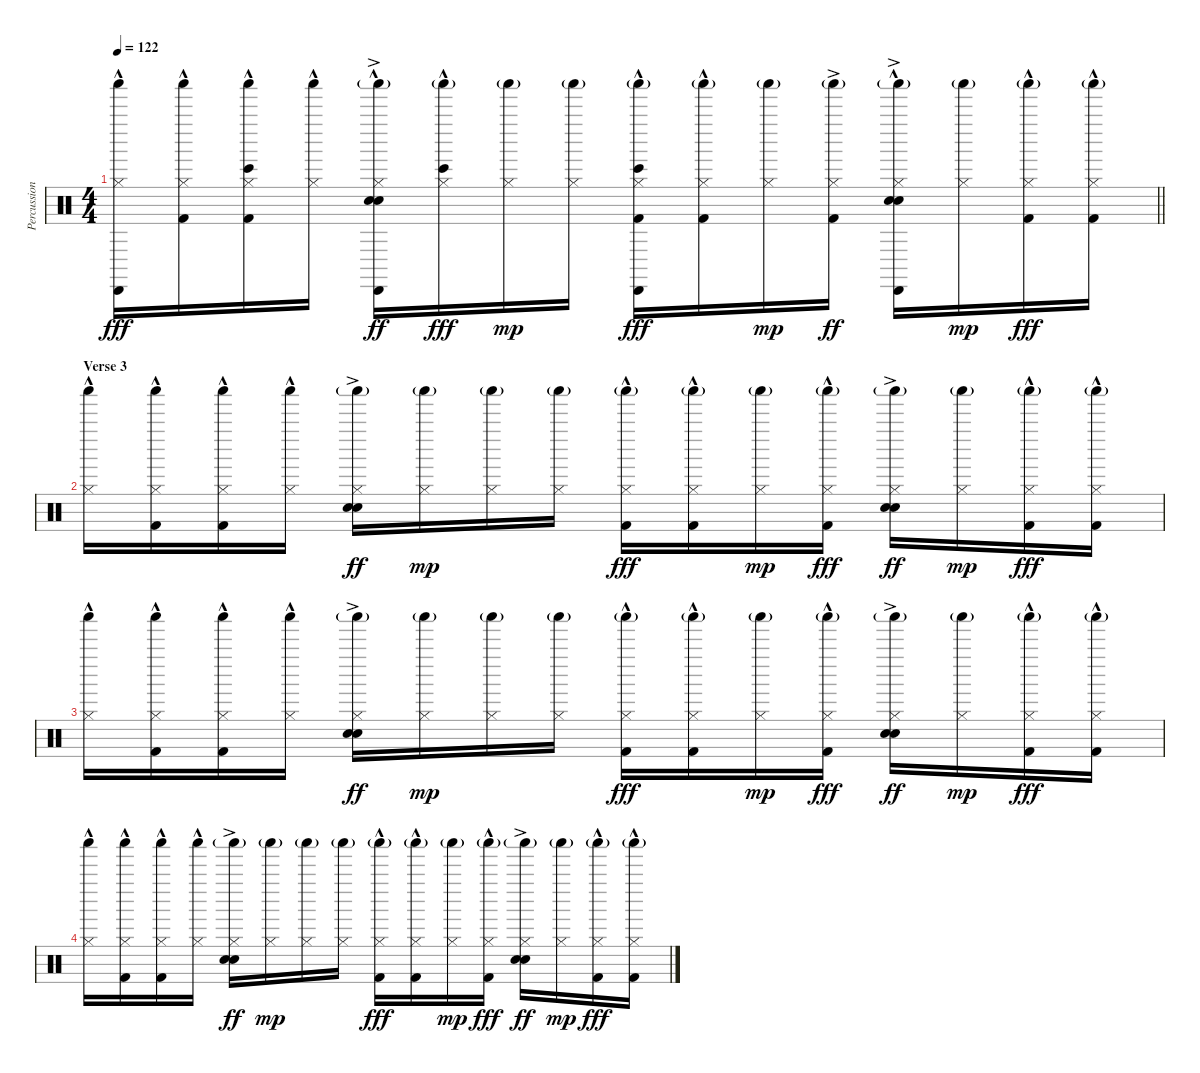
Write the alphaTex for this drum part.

\track ("Percussion" "Percussion") {instrument percussion}
\staff {score}
\articulation defaults
\ts (4 4)
\tempo 122
\clef neutral
\barLineRight lightlight
\ks c
("Cabasa (hit)"{hac} "Shaker (hit)" "Hi-Hat (closed)"{hac}).16{dy fff} ("Shaker (hit)" "Hi-Hat (closed)"{hac} "Kick (hit) 2"{hac}).16 ("Shaker (hit)" "Hi-Hat (closed)"{hac} "Bongo High (hit)"{hac} "Kick (hit) 2"{hac}).16 ("Shaker (hit)" "Hi-Hat (closed)"{hac}).16 ("Cabasa (hit)"{hac} "Shaker (hit)"{g} "Hi-Hat (closed)" "Hand Clap (hit)"{ac} "Snare (hit) 2"{ac}).16{dy ff} ("Shaker (hit)"{g} "Hi-Hat (closed)" "Bongo High (hit)"{hac}).16{dy fff} ("Shaker (hit)"{g} "Hi-Hat (closed)").16{dy mp} ("Shaker (hit)"{g} "Hi-Hat (closed)").16 ("Cabasa (hit)"{hac} "Shaker (hit)"{g} "Hi-Hat (closed)" "Bongo High (hit)"{hac} "Kick (hit) 2"{hac}).16{dy fff} ("Shaker (hit)"{g} "Hi-Hat (closed)" "Kick (hit) 2"{hac}).16 ("Shaker (hit)"{g} "Hi-Hat (closed)").16{dy mp} ("Shaker (hit)"{g} "Hi-Hat (closed)" "Kick (hit) 2"{ac}).16{dy ff} ("Cabasa (hit)"{hac} "Shaker (hit)"{g} "Hi-Hat (closed)" "Hand Clap (hit)"{ac} "Snare (hit) 2"{ac}).16 ("Shaker (hit)"{g} "Hi-Hat (closed)").16{dy mp} ("Shaker (hit)"{g} "Hi-Hat (closed)" "Kick (hit) 2"{hac}).16{dy fff} ("Shaker (hit)"{g} "Hi-Hat (closed)" "Kick (hit) 2"{hac}).16 |
\section ("" "Verse 3")
("Shaker (hit)" "Hi-Hat (closed)"{hac}).16 ("Shaker (hit)" "Hi-Hat (closed)"{hac} "Kick (hit) 2"{hac}).16 ("Shaker (hit)" "Hi-Hat (closed)"{hac} "Kick (hit) 2"{hac}).16 ("Shaker (hit)" "Hi-Hat (closed)"{hac}).16 ("Shaker (hit)"{g} "Hi-Hat (closed)" "Hand Clap (hit)" "Snare (hit) 2"{ac}).16{dy ff} ("Shaker (hit)"{g} "Hi-Hat (closed)").16{dy mp} ("Shaker (hit)"{g} "Hi-Hat (closed)").16 ("Shaker (hit)"{g} "Hi-Hat (closed)").16 ("Shaker (hit)"{g} "Hi-Hat (closed)" "Kick (hit) 2"{hac}).16{dy fff} ("Shaker (hit)"{g} "Hi-Hat (closed)" "Kick (hit) 2"{hac}).16 ("Shaker (hit)"{g} "Hi-Hat (closed)").16{dy mp} ("Shaker (hit)"{g} "Hi-Hat (closed)" "Kick (hit) 2"{hac}).16{dy fff} ("Shaker (hit)"{g} "Hi-Hat (closed)" "Hand Clap (hit)"{ac} "Snare (hit) 2"{ac}).16{dy ff} ("Shaker (hit)"{g} "Hi-Hat (closed)").16{dy mp} ("Shaker (hit)"{g} "Hi-Hat (closed)" "Kick (hit) 2"{hac}).16{dy fff} ("Shaker (hit)"{g} "Hi-Hat (closed)" "Kick (hit) 2"{hac}).16 |
("Shaker (hit)" "Hi-Hat (closed)"{hac}).16 ("Shaker (hit)" "Hi-Hat (closed)"{hac} "Kick (hit) 2"{hac}).16 ("Shaker (hit)" "Hi-Hat (closed)"{hac} "Kick (hit) 2"{hac}).16 ("Shaker (hit)" "Hi-Hat (closed)"{hac}).16 ("Shaker (hit)"{g} "Hi-Hat (closed)" "Hand Clap (hit)" "Snare (hit) 2"{ac}).16{dy ff} ("Shaker (hit)"{g} "Hi-Hat (closed)").16{dy mp} ("Shaker (hit)"{g} "Hi-Hat (closed)").16 ("Shaker (hit)"{g} "Hi-Hat (closed)").16 ("Shaker (hit)"{g} "Hi-Hat (closed)" "Kick (hit) 2"{hac}).16{dy fff} ("Shaker (hit)"{g} "Hi-Hat (closed)" "Kick (hit) 2"{hac}).16 ("Shaker (hit)"{g} "Hi-Hat (closed)").16{dy mp} ("Shaker (hit)"{g} "Hi-Hat (closed)" "Kick (hit) 2"{hac}).16{dy fff} ("Shaker (hit)"{g} "Hi-Hat (closed)" "Hand Clap (hit)"{ac} "Snare (hit) 2"{ac}).16{dy ff} ("Shaker (hit)"{g} "Hi-Hat (closed)").16{dy mp} ("Shaker (hit)"{g} "Hi-Hat (closed)" "Kick (hit) 2"{hac}).16{dy fff} ("Shaker (hit)"{g} "Hi-Hat (closed)" "Kick (hit) 2"{hac}).16 |
("Shaker (hit)" "Hi-Hat (closed)"{hac}).16 ("Shaker (hit)" "Hi-Hat (closed)"{hac} "Kick (hit) 2"{hac}).16 ("Shaker (hit)" "Hi-Hat (closed)"{hac} "Kick (hit) 2"{hac}).16 ("Shaker (hit)" "Hi-Hat (closed)"{hac}).16 ("Shaker (hit)"{g} "Hi-Hat (closed)" "Hand Clap (hit)" "Snare (hit) 2"{ac}).16{dy ff} ("Shaker (hit)"{g} "Hi-Hat (closed)").16{dy mp} ("Shaker (hit)"{g} "Hi-Hat (closed)").16 ("Shaker (hit)"{g} "Hi-Hat (closed)").16 ("Shaker (hit)"{g} "Hi-Hat (closed)" "Kick (hit) 2"{hac}).16{dy fff} ("Shaker (hit)"{g} "Hi-Hat (closed)" "Kick (hit) 2"{hac}).16 ("Shaker (hit)"{g} "Hi-Hat (closed)").16{dy mp} ("Shaker (hit)"{g} "Hi-Hat (closed)" "Kick (hit) 2"{hac}).16{dy fff} ("Shaker (hit)"{g} "Hi-Hat (closed)" "Hand Clap (hit)"{ac} "Snare (hit) 2"{ac}).16{dy ff} ("Shaker (hit)"{g} "Hi-Hat (closed)").16{dy mp} ("Shaker (hit)"{g} "Hi-Hat (closed)" "Kick (hit) 2"{hac}).16{dy fff} ("Shaker (hit)"{g} "Hi-Hat (closed)" "Kick (hit) 2"{hac}).16
